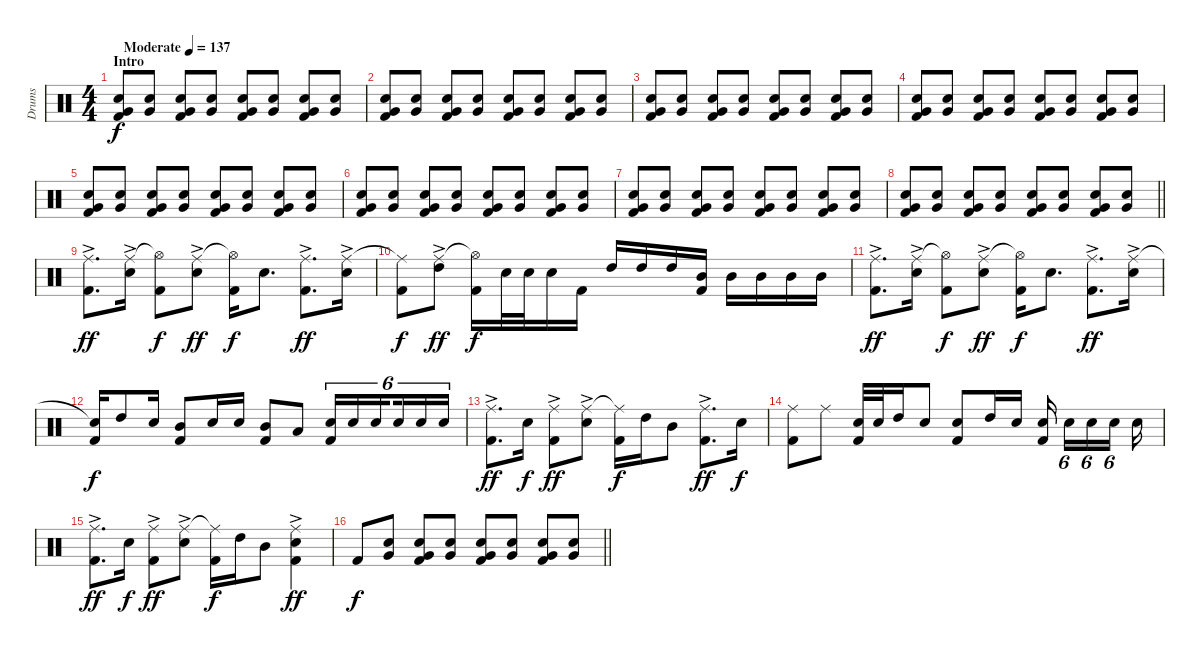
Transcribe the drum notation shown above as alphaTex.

\track ("Drums" "Drums") {instrument percussion}
\staff {score}
\articulation defaults
\ts (4 4)
\section ("" "Intro")
\tempo (137 "Moderate")
\clef neutral
\ks c
("Electric Snare (hit)" "Very Low Tom (hit)" "Kick (hit) 2").8{dy f} ("Electric Snare (hit)" "Very Low Tom (hit)").8 ("Electric Snare (hit)" "Very Low Tom (hit)" "Kick (hit) 2").8 ("Electric Snare (hit)" "Very Low Tom (hit)").8 ("Electric Snare (hit)" "Very Low Tom (hit)" "Kick (hit) 2").8 ("Electric Snare (hit)" "Very Low Tom (hit)").8 ("Electric Snare (hit)" "Very Low Tom (hit)" "Kick (hit) 2").8 ("Electric Snare (hit)" "Very Low Tom (hit)").8 |
("Electric Snare (hit)" "Very Low Tom (hit)" "Kick (hit) 2").8 ("Electric Snare (hit)" "Very Low Tom (hit)").8 ("Electric Snare (hit)" "Very Low Tom (hit)" "Kick (hit) 2").8 ("Electric Snare (hit)" "Very Low Tom (hit)").8 ("Electric Snare (hit)" "Very Low Tom (hit)" "Kick (hit) 2").8 ("Electric Snare (hit)" "Very Low Tom (hit)").8 ("Electric Snare (hit)" "Very Low Tom (hit)" "Kick (hit) 2").8 ("Electric Snare (hit)" "Very Low Tom (hit)").8 |
("Electric Snare (hit)" "Very Low Tom (hit)" "Kick (hit) 2").8 ("Electric Snare (hit)" "Very Low Tom (hit)").8 ("Electric Snare (hit)" "Very Low Tom (hit)" "Kick (hit) 2").8 ("Electric Snare (hit)" "Very Low Tom (hit)").8 ("Electric Snare (hit)" "Very Low Tom (hit)" "Kick (hit) 2").8 ("Electric Snare (hit)" "Very Low Tom (hit)").8 ("Electric Snare (hit)" "Very Low Tom (hit)" "Kick (hit) 2").8 ("Electric Snare (hit)" "Very Low Tom (hit)").8 |
("Electric Snare (hit)" "Very Low Tom (hit)" "Kick (hit) 2").8 ("Electric Snare (hit)" "Very Low Tom (hit)").8 ("Electric Snare (hit)" "Very Low Tom (hit)" "Kick (hit) 2").8 ("Electric Snare (hit)" "Very Low Tom (hit)").8 ("Electric Snare (hit)" "Very Low Tom (hit)" "Kick (hit) 2").8 ("Electric Snare (hit)" "Very Low Tom (hit)").8 ("Electric Snare (hit)" "Very Low Tom (hit)" "Kick (hit) 2").8 ("Electric Snare (hit)" "Very Low Tom (hit)").8 |
("Electric Snare (hit)" "Very Low Tom (hit)" "Kick (hit) 2").8 ("Electric Snare (hit)" "Very Low Tom (hit)").8 ("Electric Snare (hit)" "Very Low Tom (hit)" "Kick (hit) 2").8 ("Electric Snare (hit)" "Very Low Tom (hit)").8 ("Electric Snare (hit)" "Very Low Tom (hit)" "Kick (hit) 2").8 ("Electric Snare (hit)" "Very Low Tom (hit)").8 ("Electric Snare (hit)" "Very Low Tom (hit)" "Kick (hit) 2").8 ("Electric Snare (hit)" "Very Low Tom (hit)").8 |
("Electric Snare (hit)" "Very Low Tom (hit)" "Kick (hit) 2").8 ("Electric Snare (hit)" "Very Low Tom (hit)").8 ("Electric Snare (hit)" "Very Low Tom (hit)" "Kick (hit) 2").8 ("Electric Snare (hit)" "Very Low Tom (hit)").8 ("Electric Snare (hit)" "Very Low Tom (hit)" "Kick (hit) 2").8 ("Electric Snare (hit)" "Very Low Tom (hit)").8 ("Electric Snare (hit)" "Very Low Tom (hit)" "Kick (hit) 2").8 ("Electric Snare (hit)" "Very Low Tom (hit)").8 |
("Electric Snare (hit)" "Very Low Tom (hit)" "Kick (hit) 2").8 ("Electric Snare (hit)" "Very Low Tom (hit)").8 ("Electric Snare (hit)" "Very Low Tom (hit)" "Kick (hit) 2").8 ("Electric Snare (hit)" "Very Low Tom (hit)").8 ("Electric Snare (hit)" "Very Low Tom (hit)" "Kick (hit) 2").8 ("Electric Snare (hit)" "Very Low Tom (hit)").8 ("Electric Snare (hit)" "Very Low Tom (hit)" "Kick (hit) 2").8 ("Electric Snare (hit)" "Very Low Tom (hit)").8 |
\barLineRight lightlight
("Electric Snare (hit)" "Very Low Tom (hit)" "Kick (hit) 2").8 ("Electric Snare (hit)" "Very Low Tom (hit)").8 ("Electric Snare (hit)" "Very Low Tom (hit)" "Kick (hit) 2").8 ("Electric Snare (hit)" "Very Low Tom (hit)").8 ("Electric Snare (hit)" "Very Low Tom (hit)" "Kick (hit) 2").8 ("Electric Snare (hit)" "Very Low Tom (hit)").8 ("Electric Snare (hit)" "Very Low Tom (hit)" "Kick (hit) 2").8 ("Electric Snare (hit)" "Very Low Tom (hit)").8 |
\section ("" "")
("Ride (middle)"{ac} "Kick (hit) 2").8{d dy ff} ("Ride (middle)"{ac} "Electric Snare (hit)").16 ("Hi-Hat (open)"{t} "Kick (hit) 2").8{dy f} ("Ride (middle)"{ac} "Electric Snare (hit)").8{dy ff} ("Hi-Hat (open)"{t} "Kick (hit) 2").16{dy f} "Electric Snare (hit)".8{d} ("Ride (middle)"{ac} "Kick (hit) 2").8{d dy ff} ("Ride (middle)"{ac} "Electric Snare (hit)").16 |
("Ride (middle)"{t} "Kick (hit) 2").8{dy f} ("Ride (middle)"{ac} "High Tom (hit)").8{dy ff} ("Hi-Hat (open)"{t} "Kick (hit) 2").16{dy f} "Electric Snare (hit)".32 "Electric Snare (hit)".32 "Electric Snare (hit)".16 "Kick (hit) 2".16 "High Tom (hit)".16 "High Tom (hit)".16 "High Tom (hit)".16 ("Mid Tom (hit)" "Kick (hit) 2").16 "Mid Tom (hit)".16 "Mid Tom (hit)".16 "Mid Tom (hit)".16 "Mid Tom (hit)".16 |
("Ride (middle)"{ac} "Kick (hit) 2").8{d dy ff} ("Ride (middle)"{ac} "Electric Snare (hit)").16 ("Hi-Hat (open)"{t} "Kick (hit) 2").8{dy f} ("Ride (middle)"{ac} "Electric Snare (hit)").8{dy ff} ("Hi-Hat (open)"{t} "Kick (hit) 2").16{dy f} "Electric Snare (hit)".8{d} ("Ride (middle)"{ac} "Kick (hit) 2").8{d dy ff} ("Ride (middle)"{ac} "Electric Snare (hit)").16 |
("Snare (hit)"{t} "Kick (hit) 2").16{dy f} "High Tom (hit)".8 "Electric Snare (hit)".16 ("Mid Tom (hit)" "Kick (hit) 2").8 "Electric Snare (hit)".16 "Electric Snare (hit)".16 ("Mid Tom (hit)" "Kick (hit) 2").8 "Low Tom (hit)".8 ("Electric Snare (hit)" "Kick (hit) 2").16{tu (6 4)} "Electric Snare (hit)".16{tu (6 4)} "Electric Snare (hit)".16{tu (6 4) beam splitsecondary} "Electric Snare (hit)".16{tu (6 4)} "Electric Snare (hit)".16{tu (6 4)} "Electric Snare (hit)".16{tu (6 4)} |
("Ride (middle)"{ac} "Kick (hit) 2").8{d dy ff} "Electric Snare (hit)".16{dy f} ("Ride (middle)"{ac} "Kick (hit) 2").8{dy ff} ("Ride (middle)"{ac} "Electric Snare (hit)").8 ("Ride (middle)"{t} "Kick (hit) 2").16{dy f} "High Tom (hit)".16 "Mid Tom (hit)".8 ("Ride (middle)"{ac} "Kick (hit) 2").8{d dy ff} "Electric Snare (hit)".16{dy f} |
("Ride (middle)" "Kick (hit) 2").8 "Ride (middle)".8 ("Electric Snare (hit)" "Kick (hit) 2").32 "Electric Snare (hit)".32 "High Tom (hit)".16 "Electric Snare (hit)".8 ("Electric Snare (hit)" "Kick (hit) 2").8 "High Tom (hit)".16 "Electric Snare (hit)".16 ("Electric Snare (hit)" "Kick (hit) 2").16{beam splitsecondary} "Electric Snare (hit)".16{tu (6 4)} "Electric Snare (hit)".16{tu (6 4)} "Electric Snare (hit)".16{tu (6 4) beam splitsecondary} "Electric Snare (hit)".16 |
("Ride (middle)"{ac} "Kick (hit) 2").8{d dy ff} "Electric Snare (hit)".16{dy f} ("Ride (middle)"{ac} "Kick (hit) 2").8{dy ff} ("Ride (middle)"{ac} "Electric Snare (hit)").8 ("Ride (middle)"{t} "Kick (hit) 2").16{dy f} "High Tom (hit)".16 "Mid Tom (hit)".8 ("Ride (middle)"{ac} "Electric Snare (hit)" "Kick (hit) 2").4{dy ff} |
\barLineRight lightlight "Kick (hit) 2".8{dy f}
("Electric Snare (hit)" "Very Low Tom (hit)").8 ("Electric Snare (hit)" "Very Low Tom (hit)" "Kick (hit) 2").8 ("Electric Snare (hit)" "Very Low Tom (hit)").8 ("Electric Snare (hit)" "Very Low Tom (hit)" "Kick (hit) 2").8 ("Electric Snare (hit)" "Very Low Tom (hit)").8 ("Electric Snare (hit)" "Very Low Tom (hit)" "Kick (hit) 2").8 ("Electric Snare (hit)" "Very Low Tom (hit)").8
